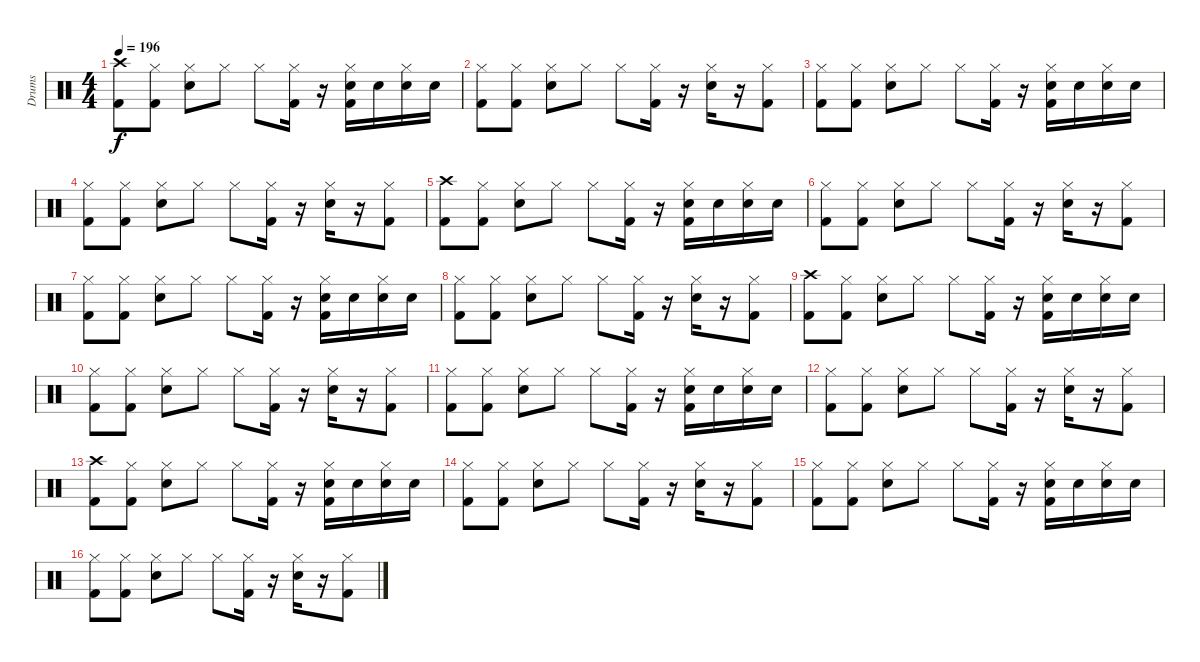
\track ("Drums" "Drums") {instrument percussion}
\staff {score}
\articulation defaults
\ts (4 4)
\tempo 196
\clef neutral
\ks c
("Crash high (hit)" "Kick (hit) 2").8{dy f} ("Hi-Hat (closed)" "Kick (hit) 2").8 ("Hi-Hat (closed)" "Electric Snare (hit)").8 "Hi-Hat (closed)".8 "Hi-Hat (closed)".8 ("Hi-Hat (closed)" "Kick (hit) 2").16 r.16 ("Hi-Hat (closed)" "Electric Snare (hit)" "Kick (hit) 2").16 "Electric Snare (hit)".16 ("Hi-Hat (closed)" "Electric Snare (hit)").16 "Electric Snare (hit)".16 |
("Hi-Hat (closed)" "Kick (hit) 2").8 ("Hi-Hat (closed)" "Kick (hit) 2").8 ("Hi-Hat (closed)" "Electric Snare (hit)").8 "Hi-Hat (closed)".8 "Hi-Hat (closed)".8 ("Hi-Hat (closed)" "Kick (hit) 2").16 r.16 ("Hi-Hat (closed)" "Electric Snare (hit)").16 r.16 ("Hi-Hat (closed)" "Kick (hit) 2").8 |
("Hi-Hat (closed)" "Kick (hit) 2").8 ("Hi-Hat (closed)" "Kick (hit) 2").8 ("Hi-Hat (closed)" "Electric Snare (hit)").8 "Hi-Hat (closed)".8 "Hi-Hat (closed)".8 ("Hi-Hat (closed)" "Kick (hit) 2").16 r.16 ("Hi-Hat (closed)" "Electric Snare (hit)" "Kick (hit) 2").16 "Electric Snare (hit)".16 ("Hi-Hat (closed)" "Electric Snare (hit)").16 "Electric Snare (hit)".16 |
("Hi-Hat (closed)" "Kick (hit) 2").8 ("Hi-Hat (closed)" "Kick (hit) 2").8 ("Hi-Hat (closed)" "Electric Snare (hit)").8 "Hi-Hat (closed)".8 "Hi-Hat (closed)".8 ("Hi-Hat (closed)" "Kick (hit) 2").16 r.16 ("Hi-Hat (closed)" "Electric Snare (hit)").16 r.16 ("Hi-Hat (closed)" "Kick (hit) 2").8 |
("Crash high (hit)" "Kick (hit) 2").8 ("Hi-Hat (closed)" "Kick (hit) 2").8 ("Hi-Hat (closed)" "Electric Snare (hit)").8 "Hi-Hat (closed)".8 "Hi-Hat (closed)".8 ("Hi-Hat (closed)" "Kick (hit) 2").16 r.16 ("Hi-Hat (closed)" "Electric Snare (hit)" "Kick (hit) 2").16 "Electric Snare (hit)".16 ("Hi-Hat (closed)" "Electric Snare (hit)").16 "Electric Snare (hit)".16 |
("Hi-Hat (closed)" "Kick (hit) 2").8 ("Hi-Hat (closed)" "Kick (hit) 2").8 ("Hi-Hat (closed)" "Electric Snare (hit)").8 "Hi-Hat (closed)".8 "Hi-Hat (closed)".8 ("Hi-Hat (closed)" "Kick (hit) 2").16 r.16 ("Hi-Hat (closed)" "Electric Snare (hit)").16 r.16 ("Hi-Hat (closed)" "Kick (hit) 2").8 |
("Hi-Hat (closed)" "Kick (hit) 2").8 ("Hi-Hat (closed)" "Kick (hit) 2").8 ("Hi-Hat (closed)" "Electric Snare (hit)").8 "Hi-Hat (closed)".8 "Hi-Hat (closed)".8 ("Hi-Hat (closed)" "Kick (hit) 2").16 r.16 ("Hi-Hat (closed)" "Electric Snare (hit)" "Kick (hit) 2").16 "Electric Snare (hit)".16 ("Hi-Hat (closed)" "Electric Snare (hit)").16 "Electric Snare (hit)".16 |
("Hi-Hat (closed)" "Kick (hit) 2").8 ("Hi-Hat (closed)" "Kick (hit) 2").8 ("Hi-Hat (closed)" "Electric Snare (hit)").8 "Hi-Hat (closed)".8 "Hi-Hat (closed)".8 ("Hi-Hat (closed)" "Kick (hit) 2").16 r.16 ("Hi-Hat (closed)" "Electric Snare (hit)").16 r.16 ("Hi-Hat (closed)" "Kick (hit) 2").8 |
("Crash high (hit)" "Kick (hit) 2").8 ("Hi-Hat (closed)" "Kick (hit) 2").8 ("Hi-Hat (closed)" "Electric Snare (hit)").8 "Hi-Hat (closed)".8 "Hi-Hat (closed)".8 ("Hi-Hat (closed)" "Kick (hit) 2").16 r.16 ("Hi-Hat (closed)" "Electric Snare (hit)" "Kick (hit) 2").16 "Electric Snare (hit)".16 ("Hi-Hat (closed)" "Electric Snare (hit)").16 "Electric Snare (hit)".16 |
("Hi-Hat (closed)" "Kick (hit) 2").8 ("Hi-Hat (closed)" "Kick (hit) 2").8 ("Hi-Hat (closed)" "Electric Snare (hit)").8 "Hi-Hat (closed)".8 "Hi-Hat (closed)".8 ("Hi-Hat (closed)" "Kick (hit) 2").16 r.16 ("Hi-Hat (closed)" "Electric Snare (hit)").16 r.16 ("Hi-Hat (closed)" "Kick (hit) 2").8 |
("Hi-Hat (closed)" "Kick (hit) 2").8 ("Hi-Hat (closed)" "Kick (hit) 2").8 ("Hi-Hat (closed)" "Electric Snare (hit)").8 "Hi-Hat (closed)".8 "Hi-Hat (closed)".8 ("Hi-Hat (closed)" "Kick (hit) 2").16 r.16 ("Hi-Hat (closed)" "Electric Snare (hit)" "Kick (hit) 2").16 "Electric Snare (hit)".16 ("Hi-Hat (closed)" "Electric Snare (hit)").16 "Electric Snare (hit)".16 |
("Hi-Hat (closed)" "Kick (hit) 2").8 ("Hi-Hat (closed)" "Kick (hit) 2").8 ("Hi-Hat (closed)" "Electric Snare (hit)").8 "Hi-Hat (closed)".8 "Hi-Hat (closed)".8 ("Hi-Hat (closed)" "Kick (hit) 2").16 r.16 ("Hi-Hat (closed)" "Electric Snare (hit)").16 r.16 ("Hi-Hat (closed)" "Kick (hit) 2").8 |
("Crash high (hit)" "Kick (hit) 2").8 ("Hi-Hat (closed)" "Kick (hit) 2").8 ("Hi-Hat (closed)" "Electric Snare (hit)").8 "Hi-Hat (closed)".8 "Hi-Hat (closed)".8 ("Hi-Hat (closed)" "Kick (hit) 2").16 r.16 ("Hi-Hat (closed)" "Electric Snare (hit)" "Kick (hit) 2").16 "Electric Snare (hit)".16 ("Hi-Hat (closed)" "Electric Snare (hit)").16 "Electric Snare (hit)".16 |
("Hi-Hat (closed)" "Kick (hit) 2").8 ("Hi-Hat (closed)" "Kick (hit) 2").8 ("Hi-Hat (closed)" "Electric Snare (hit)").8 "Hi-Hat (closed)".8 "Hi-Hat (closed)".8 ("Hi-Hat (closed)" "Kick (hit) 2").16 r.16 ("Hi-Hat (closed)" "Electric Snare (hit)").16 r.16 ("Hi-Hat (closed)" "Kick (hit) 2").8 |
("Hi-Hat (closed)" "Kick (hit) 2").8 ("Hi-Hat (closed)" "Kick (hit) 2").8 ("Hi-Hat (closed)" "Electric Snare (hit)").8 "Hi-Hat (closed)".8 "Hi-Hat (closed)".8 ("Hi-Hat (closed)" "Kick (hit) 2").16 r.16 ("Hi-Hat (closed)" "Electric Snare (hit)" "Kick (hit) 2").16 "Electric Snare (hit)".16 ("Hi-Hat (closed)" "Electric Snare (hit)").16 "Electric Snare (hit)".16 |
("Hi-Hat (closed)" "Kick (hit) 2").8 ("Hi-Hat (closed)" "Kick (hit) 2").8 ("Hi-Hat (closed)" "Electric Snare (hit)").8 "Hi-Hat (closed)".8 "Hi-Hat (closed)".8 ("Hi-Hat (closed)" "Kick (hit) 2").16 r.16 ("Hi-Hat (closed)" "Electric Snare (hit)").16 r.16 ("Hi-Hat (closed)" "Kick (hit) 2").8
